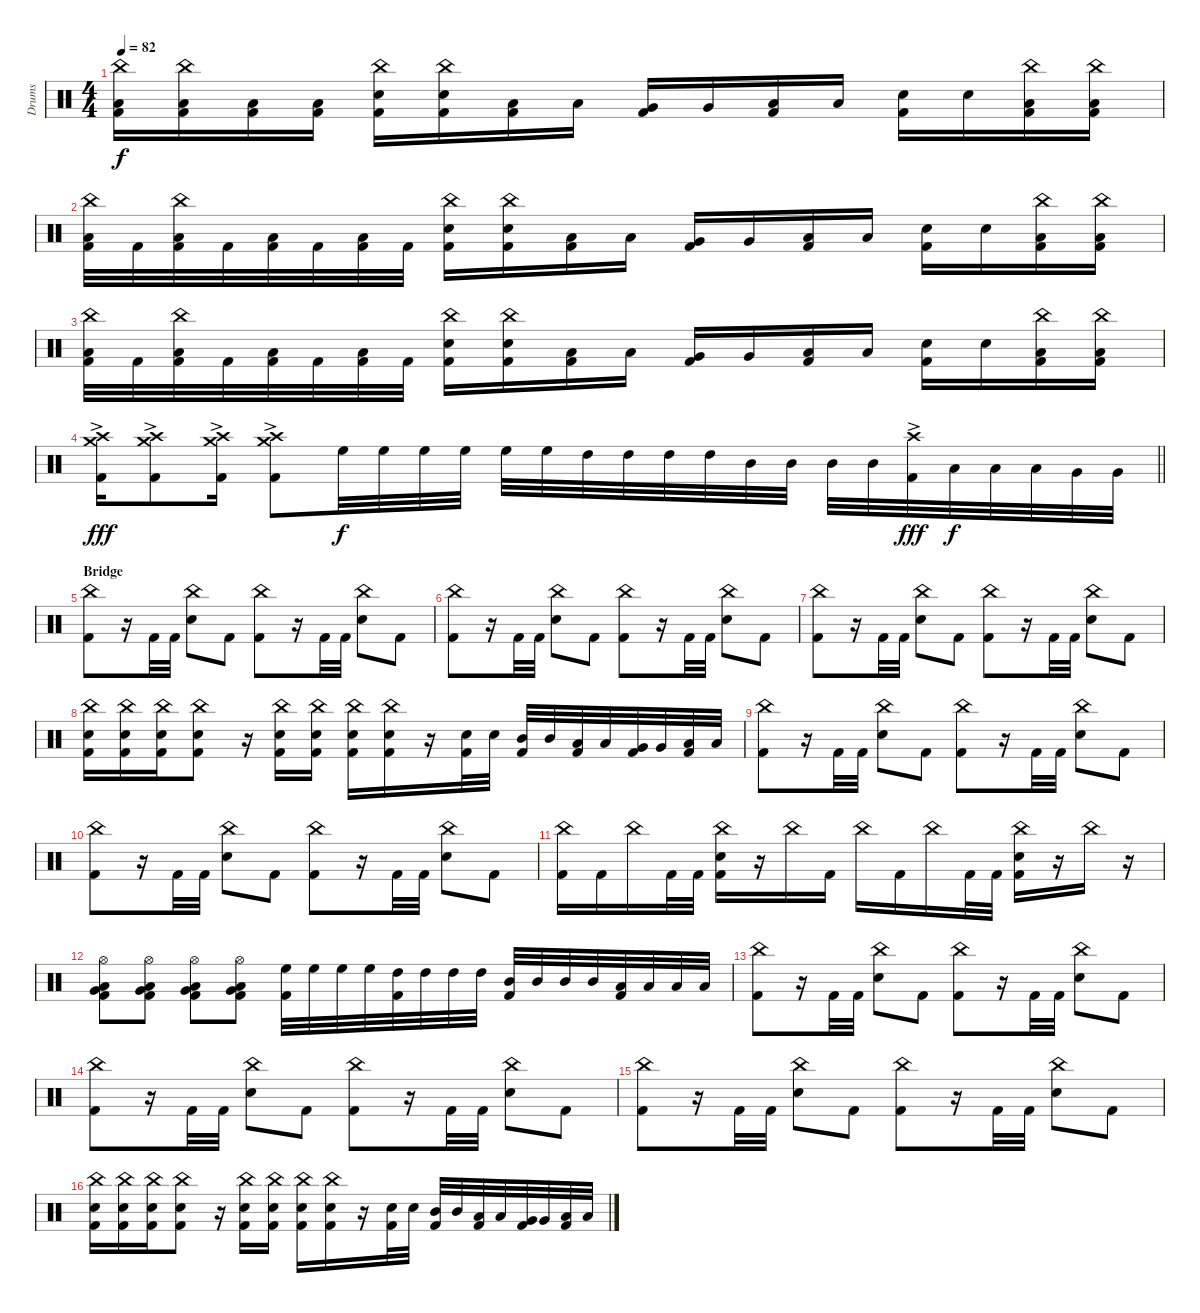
\track ("Drums" "Drums") {instrument percussion}
\staff {score}
\articulation defaults
\ts (4 4)
\tempo 82
\clef neutral
\ks c
("China (hit)" "Low Floor Tom (hit)" "Kick (hit) 2").16{dy f} ("China (hit)" "Low Floor Tom (hit)" "Kick (hit) 2").16 ("Low Floor Tom (hit)" "Kick (hit) 2").16 ("Low Floor Tom (hit)" "Kick (hit) 2").16 ("China (hit)" "Electric Snare (hit)" "Kick (hit) 2").16 ("China (hit)" "Electric Snare (hit)" "Kick (hit) 2").16 ("Low Tom (hit)" "Kick (hit) 2").16 "Low Tom (hit)".16 ("Very Low Tom (hit)" "Kick (hit) 2").16 "Very Low Tom (hit)".16 ("Low Floor Tom (hit)" "Kick (hit) 2").16 "Low Floor Tom (hit)".16 ("Electric Snare (hit)" "Kick (hit) 2").16 "Electric Snare (hit)".16 ("China (hit)" "Low Floor Tom (hit)" "Kick (hit) 2").16 ("China (hit)" "Low Floor Tom (hit)" "Kick (hit) 2").16 |
("China (hit)" "Low Floor Tom (hit)" "Kick (hit) 2").32 "Kick (hit) 2".32 ("China (hit)" "Low Floor Tom (hit)" "Kick (hit) 2").32 "Kick (hit) 2".32 ("Low Floor Tom (hit)" "Kick (hit) 2").32 "Kick (hit) 2".32 ("Low Floor Tom (hit)" "Kick (hit) 2").32 "Kick (hit) 2".32 ("China (hit)" "Electric Snare (hit)" "Kick (hit) 2").16 ("China (hit)" "Electric Snare (hit)" "Kick (hit) 2").16 ("Low Tom (hit)" "Kick (hit) 2").16 "Low Tom (hit)".16 ("Very Low Tom (hit)" "Kick (hit) 2").16 "Very Low Tom (hit)".16 ("Low Floor Tom (hit)" "Kick (hit) 2").16 "Low Floor Tom (hit)".16 ("Electric Snare (hit)" "Kick (hit) 2").16 "Electric Snare (hit)".16 ("China (hit)" "Low Floor Tom (hit)" "Kick (hit) 2").16 ("China (hit)" "Low Floor Tom (hit)" "Kick (hit) 2").16 |
("China (hit)" "Low Floor Tom (hit)" "Kick (hit) 2").32 "Kick (hit) 2".32 ("China (hit)" "Low Floor Tom (hit)" "Kick (hit) 2").32 "Kick (hit) 2".32 ("Low Floor Tom (hit)" "Kick (hit) 2").32 "Kick (hit) 2".32 ("Low Floor Tom (hit)" "Kick (hit) 2").32 "Kick (hit) 2".32 ("China (hit)" "Electric Snare (hit)" "Kick (hit) 2").16 ("China (hit)" "Electric Snare (hit)" "Kick (hit) 2").16 ("Low Tom (hit)" "Kick (hit) 2").16 "Low Tom (hit)".16 ("Very Low Tom (hit)" "Kick (hit) 2").16 "Very Low Tom (hit)".16 ("Low Floor Tom (hit)" "Kick (hit) 2").16 "Low Floor Tom (hit)".16 ("Electric Snare (hit)" "Kick (hit) 2").16 "Electric Snare (hit)".16 ("China (hit)" "Low Floor Tom (hit)" "Kick (hit) 2").16 ("China (hit)" "Low Floor Tom (hit)" "Kick (hit) 2").16 |
\barLineRight lightlight
("Crash high (hit)" "Crash medium (hit)" "Kick (hit) 2"{ac}).16{dy fff} ("Crash high (hit)" "Crash medium (hit)" "Kick (hit) 2"{ac}).8 ("Crash high (hit)" "Crash medium (hit)" "Kick (hit) 2"{ac}).16 ("Crash high (hit)" "Crash medium (hit)" "Kick (hit) 2"{ac}).8 "High Floor Tom (hit)".32{dy f} "High Floor Tom (hit)".32 "High Floor Tom (hit)".32 "High Floor Tom (hit)".32 "High Floor Tom (hit)".32 "High Floor Tom (hit)".32 "High Tom (hit)".32 "High Tom (hit)".32 "High Tom (hit)".32 "High Tom (hit)".32 "Mid Tom (hit)".32 "Mid Tom (hit)".32 "Mid Tom (hit)".32 "Mid Tom (hit)".32 ("Crash high (hit)" "Kick (hit) 2"{ac}).32{dy fff} "Low Tom (hit)".32{dy f} "Low Tom (hit)".32 "Low Tom (hit)".32 "Very Low Tom (hit)".32 "Very Low Tom (hit)".32 |
\section ("" "Bridge")
("China (hit)" "Kick (hit) 2").8 r.16 "Kick (hit) 2".32 "Kick (hit) 2".32 ("China (hit)" "Electric Snare (hit)").8 "Kick (hit) 2".8 ("China (hit)" "Kick (hit) 2").8 r.16 "Kick (hit) 2".32 "Kick (hit) 2".32 ("China (hit)" "Electric Snare (hit)").8 "Kick (hit) 2".8 |
("China (hit)" "Kick (hit) 2").8 r.16 "Kick (hit) 2".32 "Kick (hit) 2".32 ("China (hit)" "Electric Snare (hit)").8 "Kick (hit) 2".8 ("China (hit)" "Kick (hit) 2").8 r.16 "Kick (hit) 2".32 "Kick (hit) 2".32 ("China (hit)" "Electric Snare (hit)").8 "Kick (hit) 2".8 |
("China (hit)" "Kick (hit) 2").8 r.16 "Kick (hit) 2".32 "Kick (hit) 2".32 ("China (hit)" "Electric Snare (hit)").8 "Kick (hit) 2".8 ("China (hit)" "Kick (hit) 2").8 r.16 "Kick (hit) 2".32 "Kick (hit) 2".32 ("China (hit)" "Electric Snare (hit)").8 "Kick (hit) 2".8 |
("China (hit)" "Electric Snare (hit)" "Kick (hit) 2").16 ("China (hit)" "Electric Snare (hit)" "Kick (hit) 2").16 ("China (hit)" "Electric Snare (hit)" "Kick (hit) 2").16 ("China (hit)" "Electric Snare (hit)" "Kick (hit) 2").8 r.16 ("China (hit)" "Electric Snare (hit)" "Kick (hit) 2").16 ("China (hit)" "Electric Snare (hit)" "Kick (hit) 2").16 ("China (hit)" "Electric Snare (hit)" "Kick (hit) 2").16 ("China (hit)" "Electric Snare (hit)" "Kick (hit) 2").16 r.16 ("Electric Snare (hit)" "Kick (hit) 2").32 "Electric Snare (hit)".32 ("Mid Tom (hit)" "Kick (hit) 2").32 "Mid Tom (hit)".32 ("Low Tom (hit)" "Kick (hit) 2").32 "Low Tom (hit)".32 ("Kick (hit) 2" "Very Low Tom (hit)").32 "Very Low Tom (hit)".32 ("Kick (hit) 2" "Low Floor Tom (hit)").32 "Low Floor Tom (hit)".32 |
("China (hit)" "Kick (hit) 2").8 r.16 "Kick (hit) 2".32 "Kick (hit) 2".32 ("China (hit)" "Electric Snare (hit)").8 "Kick (hit) 2".8 ("China (hit)" "Kick (hit) 2").8 r.16 "Kick (hit) 2".32 "Kick (hit) 2".32 ("China (hit)" "Electric Snare (hit)").8 "Kick (hit) 2".8 |
("China (hit)" "Kick (hit) 2").8 r.16 "Kick (hit) 2".32 "Kick (hit) 2".32 ("China (hit)" "Electric Snare (hit)").8 "Kick (hit) 2".8 ("China (hit)" "Kick (hit) 2").8 r.16 "Kick (hit) 2".32 "Kick (hit) 2".32 ("China (hit)" "Electric Snare (hit)").8 "Kick (hit) 2".8 |
("China (hit)" "Kick (hit) 2").16 "Kick (hit) 2".16 "China (hit)".16 "Kick (hit) 2".32 "Kick (hit) 2".32 ("China (hit)" "Electric Snare (hit)" "Kick (hit) 2").16 r.16 "China (hit)".16 "Kick (hit) 2".16 "China (hit)".16 "Kick (hit) 2".16 "China (hit)".16 "Kick (hit) 2".32 "Kick (hit) 2".32 ("China (hit)" "Electric Snare (hit)" "Kick (hit) 2").16 r.16 "China (hit)".16 r.16 |
("Hi-Hat (open)" "Low Floor Tom (hit)" "Very Low Tom (hit)" "Kick (hit) 2").8 ("Hi-Hat (open)" "Low Floor Tom (hit)" "Very Low Tom (hit)" "Kick (hit) 2").8 ("Hi-Hat (open)" "Low Floor Tom (hit)" "Very Low Tom (hit)" "Kick (hit) 2").8 ("Hi-Hat (open)" "Low Floor Tom (hit)" "Very Low Tom (hit)" "Kick (hit) 2").8 ("High Floor Tom (hit)" "Kick (hit) 2").32 "High Floor Tom (hit)".32 "High Floor Tom (hit)".32 "High Floor Tom (hit)".32 ("High Tom (hit)" "Kick (hit) 2").32 "High Tom (hit)".32 "High Tom (hit)".32 "High Tom (hit)".32 ("Mid Tom (hit)" "Kick (hit) 2").32 "Mid Tom (hit)".32 "Mid Tom (hit)".32 "Mid Tom (hit)".32 ("Low Tom (hit)" "Kick (hit) 2").32 "Low Tom (hit)".32 "Low Tom (hit)".32 "Low Tom (hit)".32 |
("China (hit)" "Kick (hit) 2").8 r.16 "Kick (hit) 2".32 "Kick (hit) 2".32 ("China (hit)" "Electric Snare (hit)").8 "Kick (hit) 2".8 ("China (hit)" "Kick (hit) 2").8 r.16 "Kick (hit) 2".32 "Kick (hit) 2".32 ("China (hit)" "Electric Snare (hit)").8 "Kick (hit) 2".8 |
("China (hit)" "Kick (hit) 2").8 r.16 "Kick (hit) 2".32 "Kick (hit) 2".32 ("China (hit)" "Electric Snare (hit)").8 "Kick (hit) 2".8 ("China (hit)" "Kick (hit) 2").8 r.16 "Kick (hit) 2".32 "Kick (hit) 2".32 ("China (hit)" "Electric Snare (hit)").8 "Kick (hit) 2".8 |
("China (hit)" "Kick (hit) 2").8 r.16 "Kick (hit) 2".32 "Kick (hit) 2".32 ("China (hit)" "Electric Snare (hit)").8 "Kick (hit) 2".8 ("China (hit)" "Kick (hit) 2").8 r.16 "Kick (hit) 2".32 "Kick (hit) 2".32 ("China (hit)" "Electric Snare (hit)").8 "Kick (hit) 2".8 |
("China (hit)" "Electric Snare (hit)" "Kick (hit) 2").16 ("China (hit)" "Electric Snare (hit)" "Kick (hit) 2").16 ("China (hit)" "Electric Snare (hit)" "Kick (hit) 2").16 ("China (hit)" "Electric Snare (hit)" "Kick (hit) 2").8 r.16 ("China (hit)" "Electric Snare (hit)" "Kick (hit) 2").16 ("China (hit)" "Electric Snare (hit)" "Kick (hit) 2").16 ("China (hit)" "Electric Snare (hit)" "Kick (hit) 2").16 ("China (hit)" "Electric Snare (hit)" "Kick (hit) 2").16 r.16 ("Electric Snare (hit)" "Kick (hit) 2").32 "Electric Snare (hit)".32 ("Mid Tom (hit)" "Kick (hit) 2").32 "Mid Tom (hit)".32 ("Low Tom (hit)" "Kick (hit) 2").32 "Low Tom (hit)".32 ("Kick (hit) 2" "Very Low Tom (hit)").32 "Very Low Tom (hit)".32 ("Kick (hit) 2" "Low Floor Tom (hit)").32 "Low Floor Tom (hit)".32
